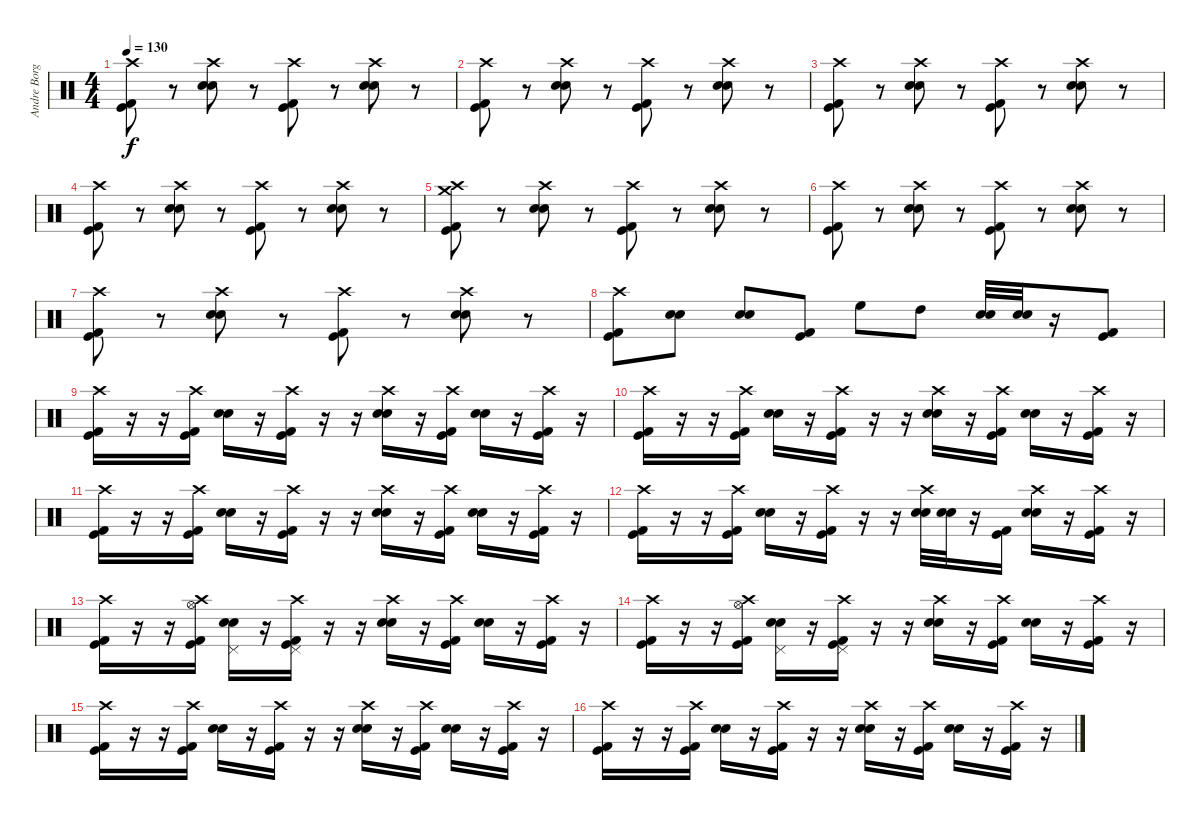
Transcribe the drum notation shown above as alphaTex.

\track ("Andre Borgman" "Andre Borg") {instrument percussion}
\staff {score}
\articulation defaults
\ts (4 4)
\tempo 130
\clef neutral
\ks c
("Crash high (hit)" "Kick (hit)" "Kick (hit) 2").8{dy f} r.8 ("Crash high (hit)" "Electric Snare (hit)" "Snare (hit) 2").8 r.8 ("Crash high (hit)" "Kick (hit)" "Kick (hit) 2").8 r.8 ("Crash high (hit)" "Electric Snare (hit)" "Snare (hit) 2").8 r.8 |
("Crash high (hit)" "Kick (hit)" "Kick (hit) 2").8 r.8 ("Crash high (hit)" "Electric Snare (hit)" "Snare (hit) 2").8 r.8 ("Crash high (hit)" "Kick (hit)" "Kick (hit) 2").8 r.8 ("Crash high (hit)" "Electric Snare (hit)" "Snare (hit) 2").8 r.8 |
("Crash high (hit)" "Kick (hit)" "Kick (hit) 2").8 r.8 ("Crash high (hit)" "Electric Snare (hit)" "Snare (hit) 2").8 r.8 ("Crash high (hit)" "Kick (hit)" "Kick (hit) 2").8 r.8 ("Crash high (hit)" "Electric Snare (hit)" "Snare (hit) 2").8 r.8 |
("Crash high (hit)" "Kick (hit)" "Kick (hit) 2").8 r.8 ("Crash high (hit)" "Electric Snare (hit)" "Snare (hit) 2").8 r.8 ("Crash high (hit)" "Kick (hit)" "Kick (hit) 2").8 r.8 ("Crash high (hit)" "Electric Snare (hit)" "Snare (hit) 2").8 r.8 |
("Crash medium (hit)" "Crash high (hit)" "Kick (hit)" "Kick (hit) 2").8 r.8 ("Crash high (hit)" "Electric Snare (hit)" "Snare (hit) 2").8 r.8 ("Crash high (hit)" "Kick (hit)" "Kick (hit) 2").8 r.8 ("Crash high (hit)" "Electric Snare (hit)" "Snare (hit) 2").8 r.8 |
("Crash high (hit)" "Kick (hit)" "Kick (hit) 2").8 r.8 ("Crash high (hit)" "Electric Snare (hit)" "Snare (hit) 2").8 r.8 ("Crash high (hit)" "Kick (hit)" "Kick (hit) 2").8 r.8 ("Crash high (hit)" "Electric Snare (hit)" "Snare (hit) 2").8 r.8 |
("Crash high (hit)" "Kick (hit)" "Kick (hit) 2").8 r.8 ("Crash high (hit)" "Electric Snare (hit)" "Snare (hit) 2").8 r.8 ("Crash high (hit)" "Kick (hit)" "Kick (hit) 2").8 r.8 ("Crash high (hit)" "Electric Snare (hit)" "Snare (hit) 2").8 r.8 |
("Crash high (hit)" "Kick (hit)" "Kick (hit) 2").8 ("Electric Snare (hit)" "Snare (hit) 2").8 ("Electric Snare (hit)" "Snare (hit) 2").8 ("Kick (hit)" "Kick (hit) 2").8 "High Floor Tom (hit)".8 "High Tom (hit)".8 ("Electric Snare (hit)" "Snare (hit) 2").32 ("Electric Snare (hit)" "Snare (hit) 2").32 r.16 ("Kick (hit)" "Kick (hit) 2").8 |
("Crash high (hit)" "Kick (hit)" "Kick (hit) 2").16 r.16 r.16 ("Crash high (hit)" "Kick (hit)" "Kick (hit) 2").16 ("Electric Snare (hit)" "Snare (hit) 2").16 r.16 ("Crash high (hit)" "Kick (hit)" "Kick (hit) 2").16 r.16 r.16 ("Crash high (hit)" "Electric Snare (hit)" "Snare (hit) 2").16 r.16 ("Crash high (hit)" "Kick (hit)" "Kick (hit) 2").16 ("Electric Snare (hit)" "Snare (hit) 2").16 r.16 ("Crash high (hit)" "Kick (hit)" "Kick (hit) 2").16 r.16 |
("Crash high (hit)" "Kick (hit)" "Kick (hit) 2").16 r.16 r.16 ("Crash high (hit)" "Kick (hit)" "Kick (hit) 2").16 ("Electric Snare (hit)" "Snare (hit) 2").16 r.16 ("Crash high (hit)" "Kick (hit)" "Kick (hit) 2").16 r.16 r.16 ("Crash high (hit)" "Electric Snare (hit)" "Snare (hit) 2").16 r.16 ("Crash high (hit)" "Kick (hit)" "Kick (hit) 2").16 ("Electric Snare (hit)" "Snare (hit) 2").16 r.16 ("Crash high (hit)" "Kick (hit)" "Kick (hit) 2").16 r.16 |
("Crash high (hit)" "Kick (hit)" "Kick (hit) 2").16 r.16 r.16 ("Crash high (hit)" "Kick (hit)" "Kick (hit) 2").16 ("Electric Snare (hit)" "Snare (hit) 2").16 r.16 ("Crash high (hit)" "Kick (hit)" "Kick (hit) 2").16 r.16 r.16 ("Crash high (hit)" "Electric Snare (hit)" "Snare (hit) 2").16 r.16 ("Crash high (hit)" "Kick (hit)" "Kick (hit) 2").16 ("Electric Snare (hit)" "Snare (hit) 2").16 r.16 ("Crash high (hit)" "Kick (hit)" "Kick (hit) 2").16 r.16 |
("Crash high (hit)" "Kick (hit)" "Kick (hit) 2").16 r.16 r.16 ("Crash high (hit)" "Kick (hit)" "Kick (hit) 2").16 ("Electric Snare (hit)" "Snare (hit) 2").16 r.16 ("Crash high (hit)" "Kick (hit)" "Kick (hit) 2").16 r.16 r.16 ("Crash high (hit)" "Electric Snare (hit)" "Snare (hit) 2").32 ("Electric Snare (hit)" "Snare (hit) 2").32 r.16 ("Kick (hit)" "Kick (hit) 2").16 ("Crash high (hit)" "Electric Snare (hit)" "Snare (hit) 2").16 r.16 ("Crash high (hit)" "Kick (hit)" "Kick (hit) 2").16 r.16 |
("Crash high (hit)" "Kick (hit)" "Kick (hit) 2").16 r.16 r.16 ("Crash high (hit)" "Hi-Hat (open)" "Kick (hit)" "Kick (hit) 2").16 ("Pedal Hi-Hat (hit)" "Electric Snare (hit)" "Snare (hit) 2").16 r.16 ("Crash high (hit)" "Pedal Hi-Hat (hit)" "Kick (hit)" "Kick (hit) 2").16 r.16 r.16 ("Crash high (hit)" "Electric Snare (hit)" "Snare (hit) 2").16 r.16 ("Crash high (hit)" "Kick (hit)" "Kick (hit) 2").16 ("Electric Snare (hit)" "Snare (hit) 2").16 r.16 ("Crash high (hit)" "Kick (hit)" "Kick (hit) 2").16 r.16 |
("Crash high (hit)" "Kick (hit)" "Kick (hit) 2").16 r.16 r.16 ("Crash high (hit)" "Hi-Hat (open)" "Kick (hit)" "Kick (hit) 2").16 ("Pedal Hi-Hat (hit)" "Electric Snare (hit)" "Snare (hit) 2").16 r.16 ("Crash high (hit)" "Pedal Hi-Hat (hit)" "Kick (hit)" "Kick (hit) 2").16 r.16 r.16 ("Crash high (hit)" "Electric Snare (hit)" "Snare (hit) 2").16 r.16 ("Crash high (hit)" "Kick (hit)" "Kick (hit) 2").16 ("Electric Snare (hit)" "Snare (hit) 2").16 r.16 ("Crash high (hit)" "Kick (hit)" "Kick (hit) 2").16 r.16 |
("Crash high (hit)" "Kick (hit)" "Kick (hit) 2").16 r.16 r.16 ("Crash high (hit)" "Kick (hit)" "Kick (hit) 2").16 ("Electric Snare (hit)" "Snare (hit) 2").16 r.16 ("Crash high (hit)" "Kick (hit)" "Kick (hit) 2").16 r.16 r.16 ("Crash high (hit)" "Electric Snare (hit)" "Snare (hit) 2").16 r.16 ("Crash high (hit)" "Kick (hit)" "Kick (hit) 2").16 ("Electric Snare (hit)" "Snare (hit) 2").16 r.16 ("Crash high (hit)" "Kick (hit)" "Kick (hit) 2").16 r.16 |
("Crash high (hit)" "Kick (hit)" "Kick (hit) 2").16 r.16 r.16 ("Crash high (hit)" "Kick (hit)" "Kick (hit) 2").16 ("Electric Snare (hit)" "Snare (hit) 2").16 r.16 ("Crash high (hit)" "Kick (hit)" "Kick (hit) 2").16 r.16 r.16 ("Crash high (hit)" "Electric Snare (hit)" "Snare (hit) 2").16 r.16 ("Crash high (hit)" "Kick (hit)" "Kick (hit) 2").16 ("Electric Snare (hit)" "Snare (hit) 2").16 r.16 ("Crash high (hit)" "Kick (hit)" "Kick (hit) 2").16 r.16
